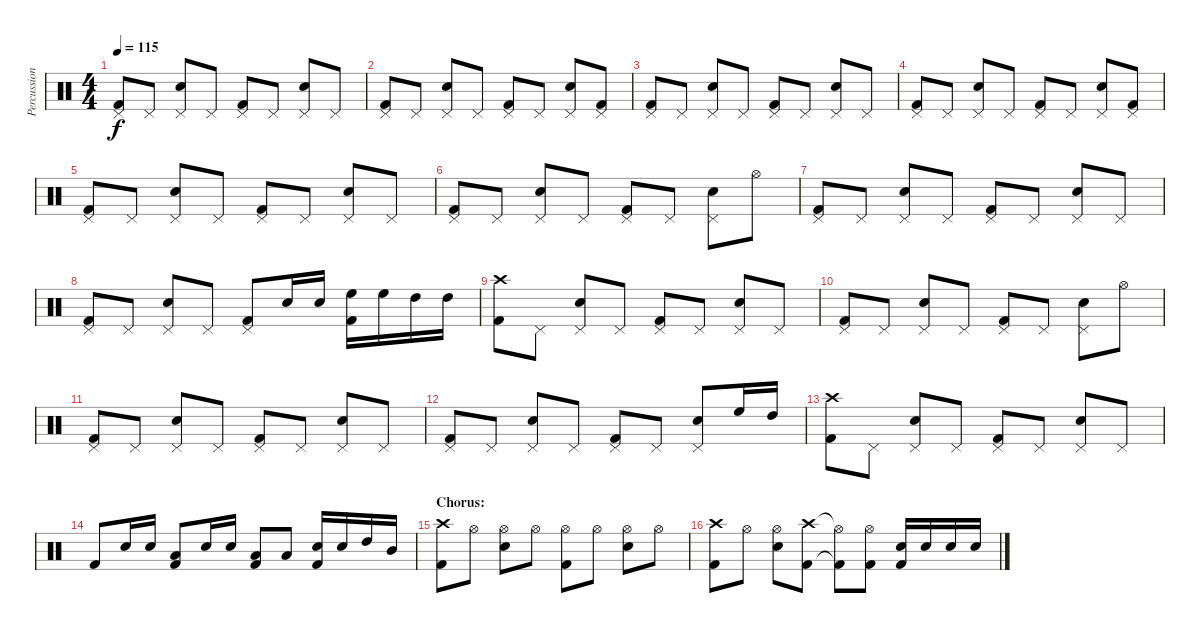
\track ("Percussion" "Percussion") {instrument percussion}
\staff {score}
\articulation defaults
\ts (4 4)
\tempo 115
\clef neutral
\ks c
("Pedal Hi-Hat (hit)" "Kick (hit) 2").8{dy f} "Pedal Hi-Hat (hit)".8 ("Pedal Hi-Hat (hit)" "Snare (hit) 2").8 "Pedal Hi-Hat (hit)".8 ("Pedal Hi-Hat (hit)" "Kick (hit) 2").8 "Pedal Hi-Hat (hit)".8 ("Pedal Hi-Hat (hit)" "Snare (hit) 2").8 "Pedal Hi-Hat (hit)".8 |
("Pedal Hi-Hat (hit)" "Kick (hit) 2").8 "Pedal Hi-Hat (hit)".8 ("Pedal Hi-Hat (hit)" "Snare (hit) 2").8 "Pedal Hi-Hat (hit)".8 ("Pedal Hi-Hat (hit)" "Kick (hit) 2").8 "Pedal Hi-Hat (hit)".8 ("Pedal Hi-Hat (hit)" "Snare (hit) 2").8 ("Pedal Hi-Hat (hit)" "Kick (hit) 2").8 |
("Pedal Hi-Hat (hit)" "Kick (hit) 2").8 "Pedal Hi-Hat (hit)".8 ("Pedal Hi-Hat (hit)" "Snare (hit) 2").8 "Pedal Hi-Hat (hit)".8 ("Pedal Hi-Hat (hit)" "Kick (hit) 2").8 "Pedal Hi-Hat (hit)".8 ("Pedal Hi-Hat (hit)" "Snare (hit) 2").8 "Pedal Hi-Hat (hit)".8 |
("Pedal Hi-Hat (hit)" "Kick (hit) 2").8 "Pedal Hi-Hat (hit)".8 ("Pedal Hi-Hat (hit)" "Snare (hit) 2").8 "Pedal Hi-Hat (hit)".8 ("Pedal Hi-Hat (hit)" "Kick (hit) 2").8 "Pedal Hi-Hat (hit)".8 ("Pedal Hi-Hat (hit)" "Snare (hit) 2").8 ("Pedal Hi-Hat (hit)" "Kick (hit) 2").8 |
("Pedal Hi-Hat (hit)" "Kick (hit) 2").8 "Pedal Hi-Hat (hit)".8 ("Pedal Hi-Hat (hit)" "Snare (hit) 2").8 "Pedal Hi-Hat (hit)".8 ("Pedal Hi-Hat (hit)" "Kick (hit) 2").8 "Pedal Hi-Hat (hit)".8 ("Pedal Hi-Hat (hit)" "Snare (hit) 2").8 "Pedal Hi-Hat (hit)".8 |
("Pedal Hi-Hat (hit)" "Kick (hit) 2").8 "Pedal Hi-Hat (hit)".8 ("Pedal Hi-Hat (hit)" "Snare (hit) 2").8 "Pedal Hi-Hat (hit)".8 ("Pedal Hi-Hat (hit)" "Kick (hit) 2").8 "Pedal Hi-Hat (hit)".8 ("Pedal Hi-Hat (hit)" "Snare (hit) 2").8 "Hi-Hat (open)".8 |
("Pedal Hi-Hat (hit)" "Kick (hit) 2").8 "Pedal Hi-Hat (hit)".8 ("Pedal Hi-Hat (hit)" "Snare (hit) 2").8 "Pedal Hi-Hat (hit)".8 ("Pedal Hi-Hat (hit)" "Kick (hit) 2").8 "Pedal Hi-Hat (hit)".8 ("Pedal Hi-Hat (hit)" "Snare (hit) 2").8 "Pedal Hi-Hat (hit)".8 |
("Pedal Hi-Hat (hit)" "Kick (hit) 2").8 "Pedal Hi-Hat (hit)".8 ("Pedal Hi-Hat (hit)" "Snare (hit) 2").8 "Pedal Hi-Hat (hit)".8 ("Pedal Hi-Hat (hit)" "Kick (hit) 2").8 "Snare (hit) 2".16 "Snare (hit) 2".16 ("High Floor Tom (hit)" "Kick (hit) 2").16 "High Floor Tom (hit)".16 "High Tom (hit)".16 "High Tom (hit)".16 |
("Crash high (hit)" "Kick (hit) 2").8 "Pedal Hi-Hat (hit)".8 ("Pedal Hi-Hat (hit)" "Snare (hit) 2").8 "Pedal Hi-Hat (hit)".8 ("Pedal Hi-Hat (hit)" "Kick (hit) 2").8 "Pedal Hi-Hat (hit)".8 ("Pedal Hi-Hat (hit)" "Snare (hit) 2").8 "Pedal Hi-Hat (hit)".8 |
("Pedal Hi-Hat (hit)" "Kick (hit) 2").8 "Pedal Hi-Hat (hit)".8 ("Pedal Hi-Hat (hit)" "Snare (hit) 2").8 "Pedal Hi-Hat (hit)".8 ("Pedal Hi-Hat (hit)" "Kick (hit) 2").8 "Pedal Hi-Hat (hit)".8 ("Pedal Hi-Hat (hit)" "Snare (hit) 2").8 "Hi-Hat (open)".8 |
("Pedal Hi-Hat (hit)" "Kick (hit) 2").8 "Pedal Hi-Hat (hit)".8 ("Pedal Hi-Hat (hit)" "Snare (hit) 2").8 "Pedal Hi-Hat (hit)".8 ("Pedal Hi-Hat (hit)" "Kick (hit) 2").8 "Pedal Hi-Hat (hit)".8 ("Pedal Hi-Hat (hit)" "Snare (hit) 2").8 "Pedal Hi-Hat (hit)".8 |
("Pedal Hi-Hat (hit)" "Kick (hit) 2").8 "Pedal Hi-Hat (hit)".8 ("Pedal Hi-Hat (hit)" "Snare (hit) 2").8 "Pedal Hi-Hat (hit)".8 ("Pedal Hi-Hat (hit)" "Kick (hit) 2").8 "Pedal Hi-Hat (hit)".8 ("Pedal Hi-Hat (hit)" "Snare (hit) 2").8 "High Floor Tom (hit)".16 "High Tom (hit)".16 |
("Crash high (hit)" "Kick (hit) 2").8 "Pedal Hi-Hat (hit)".8 ("Pedal Hi-Hat (hit)" "Snare (hit) 2").8 "Pedal Hi-Hat (hit)".8 ("Pedal Hi-Hat (hit)" "Kick (hit) 2").8 "Pedal Hi-Hat (hit)".8 ("Pedal Hi-Hat (hit)" "Snare (hit) 2").8 "Pedal Hi-Hat (hit)".8 |
"Kick (hit) 2".8 "Snare (hit) 2".16 "Snare (hit) 2".16 ("Low Tom (hit)" "Kick (hit) 2").8 "Snare (hit) 2".16 "Snare (hit) 2".16 ("Low Tom (hit)" "Kick (hit) 2").8 "Low Tom (hit)".8 ("Snare (hit) 2" "Kick (hit) 2").16 "Snare (hit) 2".16 "High Tom (hit)".16 "Mid Tom (hit)".16 |
\section ("" "Chorus:")
("Crash high (hit)" "Kick (hit) 2").8 "Hi-Hat (open)".8 ("Hi-Hat (open)" "Snare (hit) 2").8 "Hi-Hat (open)".8 ("Hi-Hat (open)" "Kick (hit) 2").8 "Hi-Hat (open)".8 ("Hi-Hat (open)" "Snare (hit) 2").8 "Hi-Hat (open)".8 |
("Crash high (hit)" "Kick (hit) 2").8 "Hi-Hat (open)".8 ("Hi-Hat (open)" "Snare (hit) 2").8 ("Crash high (hit)" "Kick (hit) 2").8 ("Hi-Hat (open)"{t} "Kick (hit) 2"{t}).8 ("Hi-Hat (open)" "Kick (hit) 2").8 ("Snare (hit) 2" "Kick (hit) 2").16 "Snare (hit) 2".16 "Snare (hit) 2".16 "Snare (hit) 2".16
